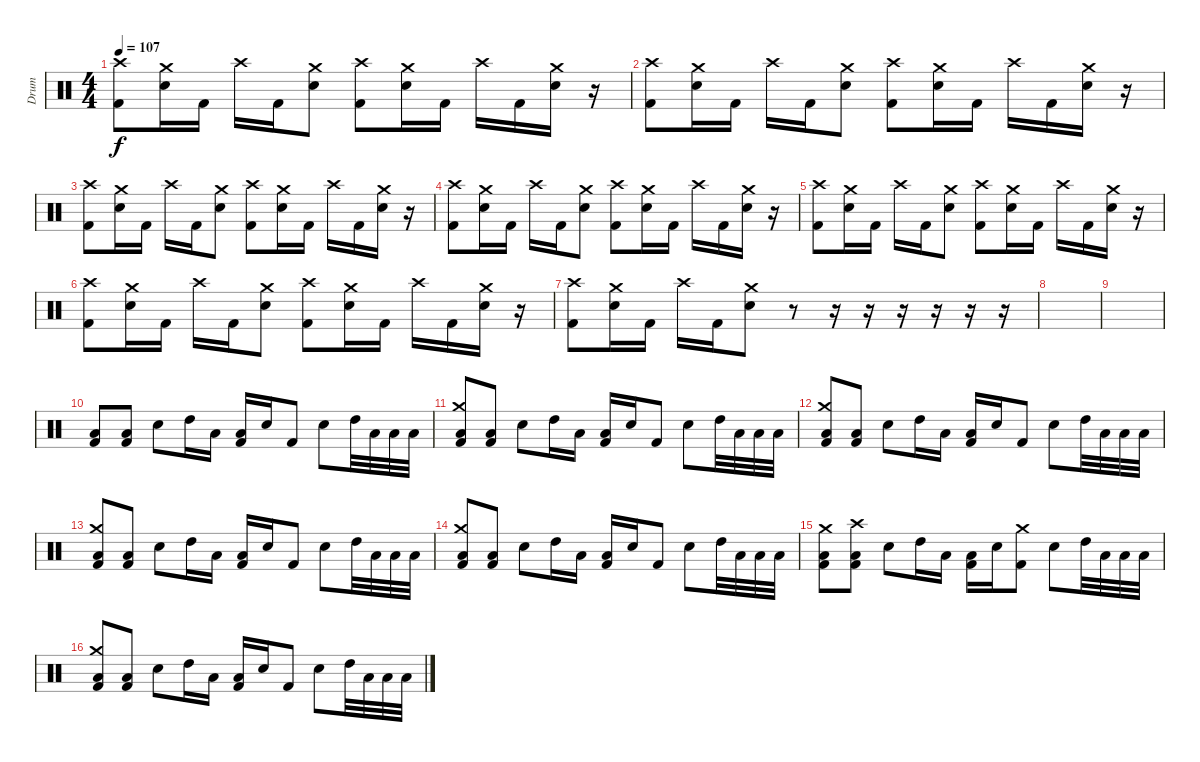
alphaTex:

\track ("Drum" "Drum") {instrument percussion}
\staff {score}
\articulation defaults
\ts (4 4)
\tempo 107
\clef neutral
\ks c
("Crash high (hit)" "Kick (hit) 2").8{dy f} ("Crash medium (hit)" "Snare (hit) 2").16 "Kick (hit) 2".16 "Crash high (hit)".16 "Kick (hit) 2".16 ("Crash medium (hit)" "Snare (hit) 2").8 ("Crash high (hit)" "Kick (hit) 2").8 ("Crash medium (hit)" "Snare (hit) 2").16 "Kick (hit) 2".16 "Crash high (hit)".16 "Kick (hit) 2".16 ("Crash medium (hit)" "Snare (hit) 2").16 r.16 |
("Crash high (hit)" "Kick (hit) 2").8 ("Crash medium (hit)" "Snare (hit) 2").16 "Kick (hit) 2".16 "Crash high (hit)".16 "Kick (hit) 2".16 ("Crash medium (hit)" "Snare (hit) 2").8 ("Crash high (hit)" "Kick (hit) 2").8 ("Crash medium (hit)" "Snare (hit) 2").16 "Kick (hit) 2".16 "Crash high (hit)".16 "Kick (hit) 2".16 ("Crash medium (hit)" "Snare (hit) 2").16 r.16 |
("Crash high (hit)" "Kick (hit) 2").8 ("Crash medium (hit)" "Snare (hit) 2").16 "Kick (hit) 2".16 "Crash high (hit)".16 "Kick (hit) 2".16 ("Crash medium (hit)" "Snare (hit) 2").8 ("Crash high (hit)" "Kick (hit) 2").8 ("Crash medium (hit)" "Snare (hit) 2").16 "Kick (hit) 2".16 "Crash high (hit)".16 "Kick (hit) 2".16 ("Crash medium (hit)" "Snare (hit) 2").16 r.16 |
("Crash high (hit)" "Kick (hit) 2").8 ("Crash medium (hit)" "Snare (hit) 2").16 "Kick (hit) 2".16 "Crash high (hit)".16 "Kick (hit) 2".16 ("Crash medium (hit)" "Snare (hit) 2").8 ("Crash high (hit)" "Kick (hit) 2").8 ("Crash medium (hit)" "Snare (hit) 2").16 "Kick (hit) 2".16 "Crash high (hit)".16 "Kick (hit) 2".16 ("Crash medium (hit)" "Snare (hit) 2").16 r.16 |
("Crash high (hit)" "Kick (hit) 2").8 ("Crash medium (hit)" "Snare (hit) 2").16 "Kick (hit) 2".16 "Crash high (hit)".16 "Kick (hit) 2".16 ("Crash medium (hit)" "Snare (hit) 2").8 ("Crash high (hit)" "Kick (hit) 2").8 ("Crash medium (hit)" "Snare (hit) 2").16 "Kick (hit) 2".16 "Crash high (hit)".16 "Kick (hit) 2".16 ("Crash medium (hit)" "Snare (hit) 2").16 r.16 |
("Crash high (hit)" "Kick (hit) 2").8 ("Crash medium (hit)" "Snare (hit) 2").16 "Kick (hit) 2".16 "Crash high (hit)".16 "Kick (hit) 2".16 ("Crash medium (hit)" "Snare (hit) 2").8 ("Crash high (hit)" "Kick (hit) 2").8 ("Crash medium (hit)" "Snare (hit) 2").16 "Kick (hit) 2".16 "Crash high (hit)".16 "Kick (hit) 2".16 ("Crash medium (hit)" "Snare (hit) 2").16 r.16 |
("Crash high (hit)" "Kick (hit) 2").8 ("Crash medium (hit)" "Snare (hit) 2").16 "Kick (hit) 2".16 "Crash high (hit)".16 "Kick (hit) 2".16 ("Crash medium (hit)" "Snare (hit) 2").8 r.8 r.16 r.16 r.16 r.16 r.16 r.16 |
|
|
("Low Floor Tom (hit)" "Kick (hit) 2").8 ("Low Floor Tom (hit)" "Kick (hit) 2").8 "Snare (hit) 2".8 "High Tom (hit)".16 "Low Tom (hit)".16 ("Low Floor Tom (hit)" "Kick (hit) 2").16 "Snare (hit) 2".16 "Kick (hit) 2".8 "Snare (hit) 2".8 "High Tom (hit)".32 "Low Tom (hit)".32 "Low Floor Tom (hit)".32 "Low Floor Tom (hit)".32 |
("Crash medium (hit)" "Low Floor Tom (hit)" "Kick (hit) 2").8 ("Low Floor Tom (hit)" "Kick (hit) 2").8 "Snare (hit) 2".8 "High Tom (hit)".16 "Low Tom (hit)".16 ("Low Floor Tom (hit)" "Kick (hit) 2").16 "Snare (hit) 2".16 "Kick (hit) 2".8 "Snare (hit) 2".8 "High Tom (hit)".32 "Low Tom (hit)".32 "Low Floor Tom (hit)".32 "Low Floor Tom (hit)".32 |
("Crash medium (hit)" "Low Floor Tom (hit)" "Kick (hit) 2").8 ("Low Floor Tom (hit)" "Kick (hit) 2").8 "Snare (hit) 2".8 "High Tom (hit)".16 "Low Tom (hit)".16 ("Low Floor Tom (hit)" "Kick (hit) 2").16 "Snare (hit) 2".16 "Kick (hit) 2".8 "Snare (hit) 2".8 "High Tom (hit)".32 "Low Tom (hit)".32 "Low Floor Tom (hit)".32 "Low Floor Tom (hit)".32 |
("Crash medium (hit)" "Low Floor Tom (hit)" "Kick (hit) 2").8 ("Low Floor Tom (hit)" "Kick (hit) 2").8 "Snare (hit) 2".8 "High Tom (hit)".16 "Low Tom (hit)".16 ("Low Floor Tom (hit)" "Kick (hit) 2").16 "Snare (hit) 2".16 "Kick (hit) 2".8 "Snare (hit) 2".8 "High Tom (hit)".32 "Low Tom (hit)".32 "Low Floor Tom (hit)".32 "Low Floor Tom (hit)".32 |
("Crash medium (hit)" "Low Floor Tom (hit)" "Kick (hit) 2").8 ("Low Floor Tom (hit)" "Kick (hit) 2").8 "Snare (hit) 2".8 "High Tom (hit)".16 "Low Tom (hit)".16 ("Low Floor Tom (hit)" "Kick (hit) 2").16 "Snare (hit) 2".16 "Kick (hit) 2".8 "Snare (hit) 2".8 "High Tom (hit)".32 "Low Tom (hit)".32 "Low Floor Tom (hit)".32 "Low Floor Tom (hit)".32 |
("Crash medium (hit)" "Low Floor Tom (hit)" "Kick (hit) 2").8 ("Crash high (hit)" "Low Floor Tom (hit)" "Kick (hit) 2").8 "Snare (hit) 2".8 "High Tom (hit)".16 "Low Tom (hit)".16 ("Low Floor Tom (hit)" "Kick (hit) 2").16 "Snare (hit) 2".16 ("Crash medium (hit)" "Kick (hit) 2").8 "Snare (hit) 2".8 "High Tom (hit)".32 "Low Tom (hit)".32 "Low Floor Tom (hit)".32 "Low Floor Tom (hit)".32 |
("Crash medium (hit)" "Low Floor Tom (hit)" "Kick (hit) 2").8 ("Low Floor Tom (hit)" "Kick (hit) 2").8 "Snare (hit) 2".8 "High Tom (hit)".16 "Low Tom (hit)".16 ("Low Floor Tom (hit)" "Kick (hit) 2").16 "Snare (hit) 2".16 "Kick (hit) 2".8 "Snare (hit) 2".8 "High Tom (hit)".32 "Low Tom (hit)".32 "Low Floor Tom (hit)".32 "Low Floor Tom (hit)".32
